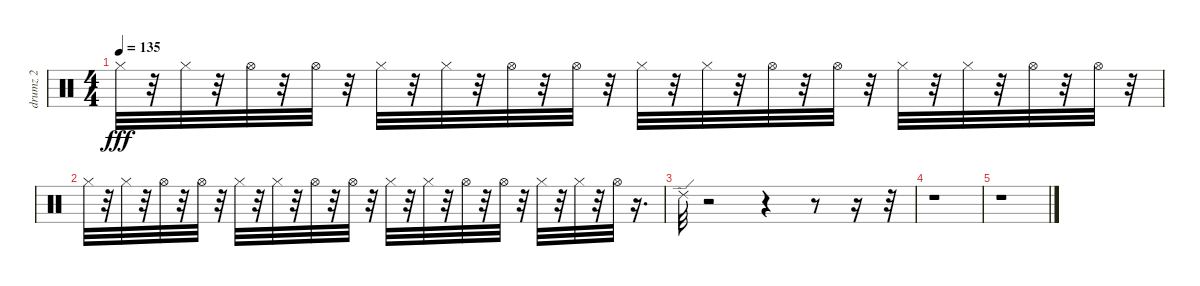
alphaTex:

\track ("drumz 2" "drumz 2") {instrument percussion}
\staff {score}
\articulation defaults
\ts (4 4)
\tempo 135
\clef neutral
\ks c "Hi-Hat (closed)".32{dy fff balance 16}
r.32 "Hi-Hat (closed)".32{balance 16} r.32 "Hi-Hat (open)".32{balance 15} r.32 "Hi-Hat (open)".32{balance 14} r.32 "Hi-Hat (closed)".32{balance 14} r.32 "Hi-Hat (closed)".32{balance 14} r.32 "Hi-Hat (open)".32{balance 13} r.32 "Hi-Hat (open)".32{balance 13} r.32 "Hi-Hat (closed)".32{balance 12} r.32 "Hi-Hat (closed)".32{balance 12} r.32 "Hi-Hat (open)".32{balance 11} r.32 "Hi-Hat (open)".32{balance 11} r.32 "Hi-Hat (closed)".32{balance 10} r.32 "Hi-Hat (closed)".32{balance 10} r.32 "Hi-Hat (open)".32{balance 9} r.32 "Hi-Hat (open)".32{balance 9} r.32 |
"Hi-Hat (closed)".32{balance 8} r.32 "Hi-Hat (closed)".32{balance 8} r.32 "Hi-Hat (open)".32{balance 7} r.32 "Hi-Hat (open)".32{balance 7} r.32 "Hi-Hat (closed)".32{balance 6} r.32 "Hi-Hat (closed)".32{balance 6} r.32 "Hi-Hat (open)".32{balance 5} r.32 "Hi-Hat (open)".32{balance 5} r.32 "Hi-Hat (closed)".32{balance 4} r.32 "Hi-Hat (closed)".32{balance 4} r.32 "Hi-Hat (open)".32{balance 3} r.32 "Hi-Hat (open)".32{balance 3} r.32 "Hi-Hat (closed)".32{balance 2} r.32 "Hi-Hat (closed)".32{balance 2} r.32 "Hi-Hat (open)".32{balance 1} r.16{d} |
"Ride (edge) 2".32{balance 0} r.2 r.4 r.8 r.16 r.32 |
r.1 |
r.1
